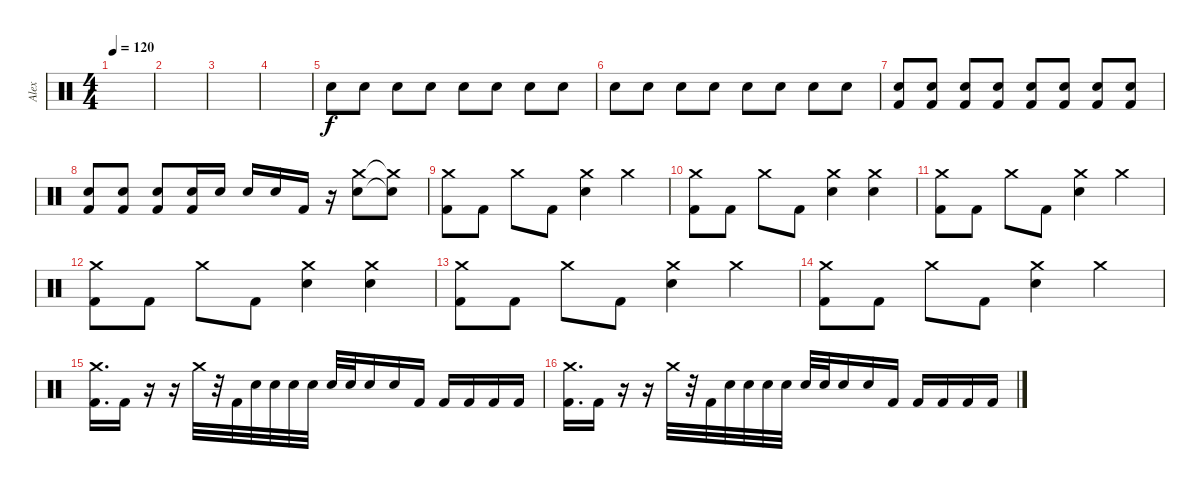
\track ("Alex" "Alex") {instrument percussion}
\staff {score}
\articulation defaults
\ts (4 4)
\tempo 120
\clef neutral
\ks c
|
|
|
|
"Snare (hit) 2".8{volume 16} "Snare (hit) 2".8 "Snare (hit) 2".8 "Snare (hit) 2".8 "Snare (hit) 2".8 "Snare (hit) 2".8 "Snare (hit) 2".8 "Snare (hit) 2".8 |
"Snare (hit) 2".8 "Snare (hit) 2".8 "Snare (hit) 2".8 "Snare (hit) 2".8 "Snare (hit) 2".8 "Snare (hit) 2".8 "Snare (hit) 2".8 "Snare (hit) 2".8 |
("Snare (hit) 2" "Kick (hit) 2").8 ("Snare (hit) 2" "Kick (hit) 2").8 ("Snare (hit) 2" "Kick (hit) 2").8 ("Snare (hit) 2" "Kick (hit) 2").8 ("Snare (hit) 2" "Kick (hit) 2").8 ("Snare (hit) 2" "Kick (hit) 2").8 ("Snare (hit) 2" "Kick (hit) 2").8 ("Snare (hit) 2" "Kick (hit) 2").8 |
("Snare (hit) 2" "Kick (hit) 2").8 ("Snare (hit) 2" "Kick (hit) 2").8 ("Snare (hit) 2" "Kick (hit) 2").8 ("Snare (hit) 2" "Kick (hit) 2").16 "Snare (hit) 2".16 "Snare (hit) 2".16 "Snare (hit) 2".16 "Kick (hit) 2".16 r.16 ("Crash medium (hit)" "Snare (hit) 2").8 ("Crash medium (hit)"{t} "Snare (hit) 2"{t}).8 |
("Crash medium (hit)" "Kick (hit) 2").8 "Kick (hit) 2".8 "Crash medium (hit)".8 "Kick (hit) 2".8 ("Crash medium (hit)" "Snare (hit) 2").4 "Crash medium (hit)".4 |
("Crash medium (hit)" "Kick (hit) 2").8 "Kick (hit) 2".8 "Crash medium (hit)".8 "Kick (hit) 2".8 ("Crash medium (hit)" "Snare (hit) 2").4 ("Crash medium (hit)" "Snare (hit) 2").4 |
("Crash medium (hit)" "Kick (hit) 2").8 "Kick (hit) 2".8 "Crash medium (hit)".8 "Kick (hit) 2".8 ("Crash medium (hit)" "Snare (hit) 2").4 "Crash medium (hit)".4 |
("Crash medium (hit)" "Kick (hit) 2").8 "Kick (hit) 2".8 "Crash medium (hit)".8 "Kick (hit) 2".8 ("Crash medium (hit)" "Snare (hit) 2").4 ("Crash medium (hit)" "Snare (hit) 2").4 |
("Crash medium (hit)" "Kick (hit) 2").8 "Kick (hit) 2".8 "Crash medium (hit)".8 "Kick (hit) 2".8 ("Crash medium (hit)" "Snare (hit) 2").4 "Crash medium (hit)".4 |
("Crash medium (hit)" "Kick (hit) 2").8 "Kick (hit) 2".8 "Crash medium (hit)".8 "Kick (hit) 2".8 ("Crash medium (hit)" "Snare (hit) 2").4 "Crash medium (hit)".4 |
("Crash medium (hit)" "Kick (hit) 2").16{d} "Kick (hit) 2".16 r.16 r.16 "Crash medium (hit)".32 r.32 "Kick (hit) 2".32 "Snare (hit) 2".32 "Snare (hit) 2".32 "Snare (hit) 2".32 "Snare (hit) 2".32 "Snare (hit) 2".32 "Snare (hit) 2".32 "Snare (hit) 2".16 "Snare (hit) 2".16 "Kick (hit) 2".16 "Kick (hit) 2".16 "Kick (hit) 2".16 "Kick (hit) 2".16 "Kick (hit) 2".16 |
("Crash medium (hit)" "Kick (hit) 2").16{d} "Kick (hit) 2".16 r.16 r.16 "Crash medium (hit)".32 r.32 "Kick (hit) 2".32 "Snare (hit) 2".32 "Snare (hit) 2".32 "Snare (hit) 2".32 "Snare (hit) 2".32 "Snare (hit) 2".32 "Snare (hit) 2".32 "Snare (hit) 2".16 "Snare (hit) 2".16 "Kick (hit) 2".16 "Kick (hit) 2".16 "Kick (hit) 2".16 "Kick (hit) 2".16 "Kick (hit) 2".16
